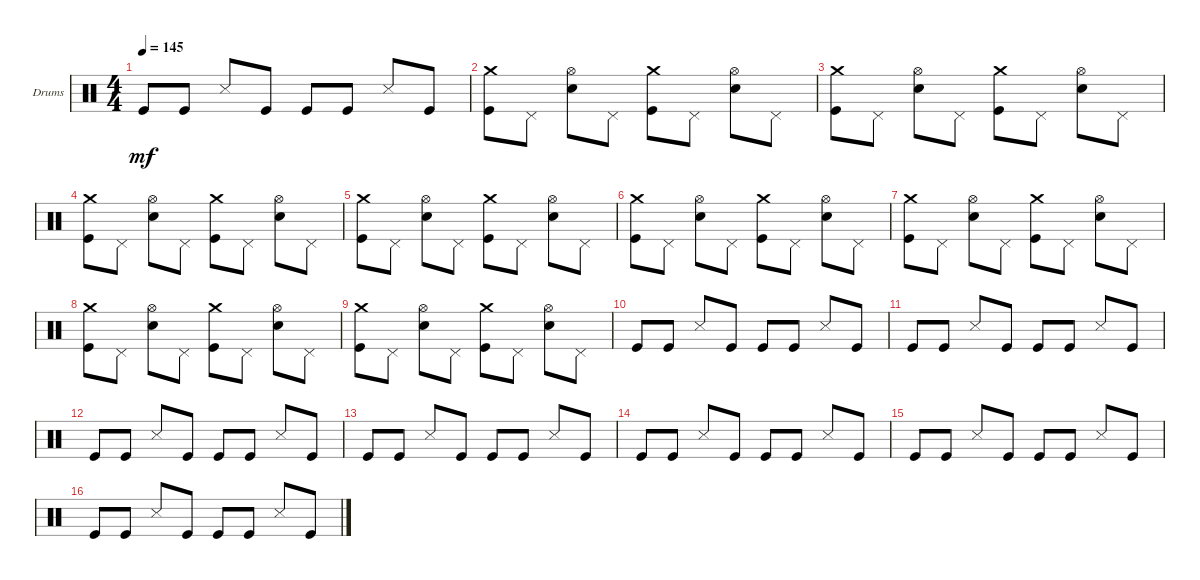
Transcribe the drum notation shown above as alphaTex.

\defaultSystemsLayout 4
\bracketExtendMode groupsimilarinstruments
\firstSystemTrackNameOrientation horizontal
\otherSystemsTrackNameOrientation horizontal
\track ("Е. Кулаков" "Drums") {instrument percussion}
\staff {score}
\articulation defaults
\ts (4 4)
\tempo 145
\clef neutral
\ks c "Kick (hit)".8{dy mf} "Kick (hit)".8 "Snare (side stick) 3".8 "Kick (hit)".8 "Kick (hit)".8 "Kick (hit)".8 "Snare (side stick) 3".8 "Kick (hit)".8
|
("Kick (hit)" "Crash medium (hit)").8 "Pedal Hi-Hat (hit)".8 ("Snare (hit) 2" "Hi-Hat (open)").8 "Pedal Hi-Hat (hit)".8 ("Kick (hit)" "Crash medium (hit)").8 "Pedal Hi-Hat (hit)".8 ("Snare (hit) 2" "Hi-Hat (open)").8 "Pedal Hi-Hat (hit)".8 |
("Kick (hit)" "Crash medium (hit)").8 "Pedal Hi-Hat (hit)".8 ("Snare (hit) 2" "Hi-Hat (open)").8 "Pedal Hi-Hat (hit)".8 ("Kick (hit)" "Crash medium (hit)").8 "Pedal Hi-Hat (hit)".8 ("Snare (hit) 2" "Hi-Hat (open)").8 "Pedal Hi-Hat (hit)".8 |
("Kick (hit)" "Crash medium (hit)").8 "Pedal Hi-Hat (hit)".8 ("Snare (hit) 2" "Hi-Hat (open)").8 "Pedal Hi-Hat (hit)".8 ("Kick (hit)" "Crash medium (hit)").8 "Pedal Hi-Hat (hit)".8 ("Snare (hit) 2" "Hi-Hat (open)").8 "Pedal Hi-Hat (hit)".8 |
("Kick (hit)" "Crash medium (hit)").8 "Pedal Hi-Hat (hit)".8 ("Snare (hit) 2" "Hi-Hat (open)").8 "Pedal Hi-Hat (hit)".8 ("Kick (hit)" "Crash medium (hit)").8 "Pedal Hi-Hat (hit)".8 ("Snare (hit) 2" "Hi-Hat (open)").8 "Pedal Hi-Hat (hit)".8 |
("Kick (hit)" "Crash medium (hit)").8 "Pedal Hi-Hat (hit)".8 ("Snare (hit) 2" "Hi-Hat (open)").8 "Pedal Hi-Hat (hit)".8 ("Kick (hit)" "Crash medium (hit)").8 "Pedal Hi-Hat (hit)".8 ("Snare (hit) 2" "Hi-Hat (open)").8 "Pedal Hi-Hat (hit)".8 |
("Kick (hit)" "Crash medium (hit)").8 "Pedal Hi-Hat (hit)".8 ("Snare (hit) 2" "Hi-Hat (open)").8 "Pedal Hi-Hat (hit)".8 ("Kick (hit)" "Crash medium (hit)").8 "Pedal Hi-Hat (hit)".8 ("Snare (hit) 2" "Hi-Hat (open)").8 "Pedal Hi-Hat (hit)".8 |
("Kick (hit)" "Crash medium (hit)").8 "Pedal Hi-Hat (hit)".8 ("Snare (hit) 2" "Hi-Hat (open)").8 "Pedal Hi-Hat (hit)".8 ("Kick (hit)" "Crash medium (hit)").8 "Pedal Hi-Hat (hit)".8 ("Snare (hit) 2" "Hi-Hat (open)").8 "Pedal Hi-Hat (hit)".8 |
("Kick (hit)" "Crash medium (hit)").8 "Pedal Hi-Hat (hit)".8 ("Snare (hit) 2" "Hi-Hat (open)").8 "Pedal Hi-Hat (hit)".8 ("Kick (hit)" "Crash medium (hit)").8 "Pedal Hi-Hat (hit)".8 ("Snare (hit) 2" "Hi-Hat (open)").8 "Pedal Hi-Hat (hit)".8 |
"Kick (hit)".8 "Kick (hit)".8 "Snare (side stick) 3".8 "Kick (hit)".8 "Kick (hit)".8 "Kick (hit)".8 "Snare (side stick) 3".8 "Kick (hit)".8 |
"Kick (hit)".8 "Kick (hit)".8 "Snare (side stick) 3".8 "Kick (hit)".8 "Kick (hit)".8 "Kick (hit)".8 "Snare (side stick) 3".8 "Kick (hit)".8 |
"Kick (hit)".8 "Kick (hit)".8 "Snare (side stick) 3".8 "Kick (hit)".8 "Kick (hit)".8 "Kick (hit)".8 "Snare (side stick) 3".8 "Kick (hit)".8 |
"Kick (hit)".8 "Kick (hit)".8 "Snare (side stick) 3".8 "Kick (hit)".8 "Kick (hit)".8 "Kick (hit)".8 "Snare (side stick) 3".8 "Kick (hit)".8 |
"Kick (hit)".8 "Kick (hit)".8 "Snare (side stick) 3".8 "Kick (hit)".8 "Kick (hit)".8 "Kick (hit)".8 "Snare (side stick) 3".8 "Kick (hit)".8 |
"Kick (hit)".8 "Kick (hit)".8 "Snare (side stick) 3".8 "Kick (hit)".8 "Kick (hit)".8 "Kick (hit)".8 "Snare (side stick) 3".8 "Kick (hit)".8 |
"Kick (hit)".8 "Kick (hit)".8 "Snare (side stick) 3".8 "Kick (hit)".8 "Kick (hit)".8 "Kick (hit)".8 "Snare (side stick) 3".8 "Kick (hit)".8
